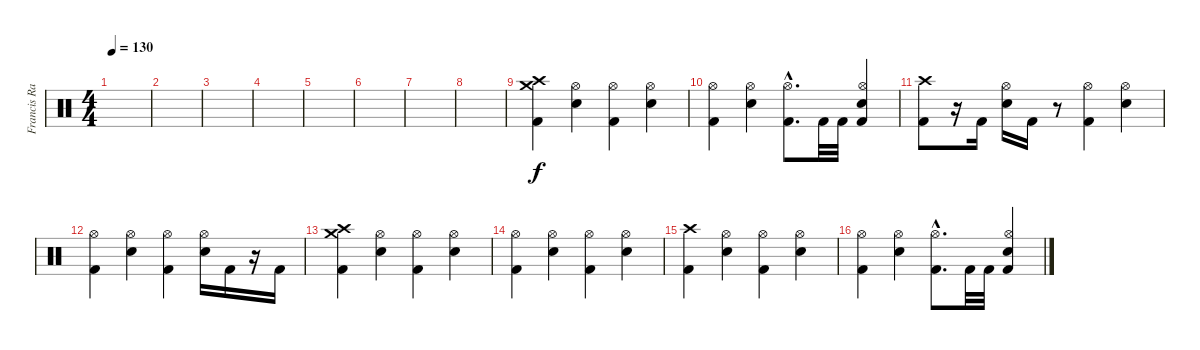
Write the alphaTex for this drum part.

\track ("Francis Ramirez" "Francis Ra") {instrument percussion}
\staff {score}
\articulation defaults
\ts (4 4)
\tempo 130
\clef neutral
\ks c
|
|
|
|
|
|
|
|
("Crash high (hit)" "Crash medium (hit)" "Kick (hit) 2").4 ("Hi-Hat (open)" "Electric Snare (hit)").4 ("Hi-Hat (open)" "Kick (hit) 2").4 ("Hi-Hat (open)" "Electric Snare (hit)").4 |
("Hi-Hat (open)" "Kick (hit) 2").4 ("Hi-Hat (open)" "Electric Snare (hit)").4 ("Hi-Hat (open)"{hac} "Kick (hit) 2"{hac}).8{d} "Kick (hit) 2".32 "Kick (hit) 2".32 ("Hi-Hat (open)" "Electric Snare (hit)" "Kick (hit) 2").4 |
("Crash high (hit)" "Kick (hit) 2").8 r.16 "Kick (hit) 2".16 ("Hi-Hat (open)" "Electric Snare (hit)").16 "Kick (hit) 2".16 r.8 ("Hi-Hat (open)" "Kick (hit) 2").4 ("Hi-Hat (open)" "Electric Snare (hit)").4 |
("Hi-Hat (open)" "Kick (hit) 2").4 ("Hi-Hat (open)" "Electric Snare (hit)").4 ("Hi-Hat (open)" "Kick (hit) 2").4 ("Hi-Hat (open)" "Electric Snare (hit)").16 "Kick (hit) 2".16 r.16 "Kick (hit) 2".16 |
("Crash high (hit)" "Crash medium (hit)" "Kick (hit) 2").4 ("Hi-Hat (open)" "Electric Snare (hit)").4 ("Hi-Hat (open)" "Kick (hit) 2").4 ("Hi-Hat (open)" "Electric Snare (hit)").4 |
("Hi-Hat (open)" "Kick (hit) 2").4 ("Hi-Hat (open)" "Electric Snare (hit)").4 ("Hi-Hat (open)" "Kick (hit) 2").4 ("Hi-Hat (open)" "Electric Snare (hit)").4 |
("Crash high (hit)" "Kick (hit) 2").4 ("Hi-Hat (open)" "Electric Snare (hit)").4 ("Hi-Hat (open)" "Kick (hit) 2").4 ("Hi-Hat (open)" "Electric Snare (hit)").4 |
("Hi-Hat (open)" "Kick (hit) 2").4 ("Hi-Hat (open)" "Electric Snare (hit)").4 ("Hi-Hat (open)"{hac} "Kick (hit) 2"{hac}).8{d} "Kick (hit) 2".32 "Kick (hit) 2".32 ("Hi-Hat (open)" "Electric Snare (hit)" "Kick (hit) 2").4
